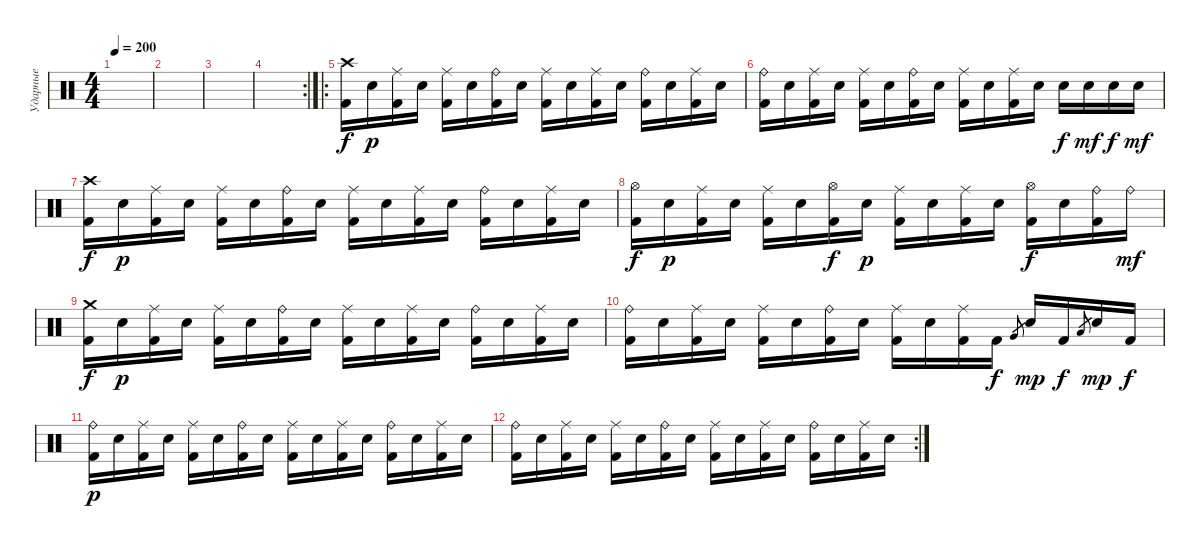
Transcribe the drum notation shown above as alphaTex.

\track ("Ударные" "Ударные") {instrument percussion}
\staff {score}
\articulation defaults
\ts (4 4)
\tempo 200
\clef neutral
\ks c
|
|
|
\rc 2
|
\ro
("Crash high (hit)" "Kick (hit) 2").16{dy f} "Electric Snare (hit)".16{dy p} ("Ride (middle)" "Kick (hit) 2").16 "Electric Snare (hit)".16 ("Ride (middle)" "Kick (hit) 2").16 "Electric Snare (hit)".16 ("Ride (bell)" "Kick (hit) 2").16 "Electric Snare (hit)".16 ("Ride (middle)" "Kick (hit) 2").16 "Electric Snare (hit)".16 ("Ride (middle)" "Kick (hit) 2").16 "Electric Snare (hit)".16 ("Ride (bell)" "Kick (hit) 2").16 "Electric Snare (hit)".16 ("Ride (middle)" "Kick (hit) 2").16 "Electric Snare (hit)".16 |
("Ride (bell)" "Kick (hit) 2").16 "Electric Snare (hit)".16 ("Ride (middle)" "Kick (hit) 2").16 "Electric Snare (hit)".16 ("Ride (middle)" "Kick (hit) 2").16 "Electric Snare (hit)".16 ("Ride (bell)" "Kick (hit) 2").16 "Electric Snare (hit)".16 ("Ride (middle)" "Kick (hit) 2").16 "Electric Snare (hit)".16 ("Ride (middle)" "Kick (hit) 2").16 "Electric Snare (hit)".16 "Electric Snare (hit)".16{dy f} "Electric Snare (hit)".16{dy mf} "Electric Snare (hit)".16{dy f} "Electric Snare (hit)".16{dy mf} |
("Crash high (hit)" "Kick (hit) 2").16{dy f} "Electric Snare (hit)".16{dy p} ("Ride (middle)" "Kick (hit) 2").16 "Electric Snare (hit)".16 ("Ride (middle)" "Kick (hit) 2").16 "Electric Snare (hit)".16 ("Ride (bell)" "Kick (hit) 2").16 "Electric Snare (hit)".16 ("Ride (middle)" "Kick (hit) 2").16 "Electric Snare (hit)".16 ("Ride (middle)" "Kick (hit) 2").16 "Electric Snare (hit)".16 ("Ride (bell)" "Kick (hit) 2").16 "Electric Snare (hit)".16 ("Ride (middle)" "Kick (hit) 2").16 "Electric Snare (hit)".16 |
("Hi-Hat (open)" "Kick (hit) 2").16{dy f} "Electric Snare (hit)".16{dy p} ("Ride (middle)" "Kick (hit) 2").16 "Electric Snare (hit)".16 ("Ride (middle)" "Kick (hit) 2").16 "Electric Snare (hit)".16 ("Hi-Hat (open)" "Kick (hit) 2").16{dy f} "Electric Snare (hit)".16{dy p} ("Ride (middle)" "Kick (hit) 2").16 "Electric Snare (hit)".16 ("Ride (middle)" "Kick (hit) 2").16 "Electric Snare (hit)".16 ("Hi-Hat (open)" "Kick (hit) 2").16{dy f} "Electric Snare (hit)".16 ("Ride (bell)" "Kick (hit) 2").16 "Ride (bell)".16{dy mf} |
("Crash medium (hit)" "Kick (hit) 2").16{dy f} "Electric Snare (hit)".16{dy p} ("Ride (middle)" "Kick (hit) 2").16 "Electric Snare (hit)".16 ("Ride (middle)" "Kick (hit) 2").16 "Electric Snare (hit)".16 ("Ride (bell)" "Kick (hit) 2").16 "Electric Snare (hit)".16 ("Ride (middle)" "Kick (hit) 2").16 "Electric Snare (hit)".16 ("Ride (middle)" "Kick (hit) 2").16 "Electric Snare (hit)".16 ("Ride (bell)" "Kick (hit) 2").16 "Electric Snare (hit)".16 ("Ride (middle)" "Kick (hit) 2").16 "Electric Snare (hit)".16 |
("Ride (bell)" "Kick (hit) 2").16 "Electric Snare (hit)".16 ("Ride (middle)" "Kick (hit) 2").16 "Electric Snare (hit)".16 ("Ride (middle)" "Kick (hit) 2").16 "Electric Snare (hit)".16 ("Ride (bell)" "Kick (hit) 2").16 "Electric Snare (hit)".16 ("Ride (middle)" "Kick (hit) 2").16 "Electric Snare (hit)".16 ("Ride (middle)" "Kick (hit) 2").16 "Kick (hit) 2".16{dy f} "Very Low Tom (hit)".8{gr} "Electric Snare (hit)".16{dy mp} "Kick (hit) 2".16{dy f} "Low Floor Tom (hit)".8{gr} "Electric Snare (hit)".16{dy mp} "Kick (hit) 2".16{dy f} |
("Ride (bell)" "Kick (hit) 2").16{dy p} "Electric Snare (hit)".16 ("Ride (middle)" "Kick (hit) 2").16 "Electric Snare (hit)".16 ("Ride (middle)" "Kick (hit) 2").16 "Electric Snare (hit)".16 ("Ride (bell)" "Kick (hit) 2").16 "Electric Snare (hit)".16 ("Ride (middle)" "Kick (hit) 2").16 "Electric Snare (hit)".16 ("Ride (middle)" "Kick (hit) 2").16 "Electric Snare (hit)".16 ("Ride (bell)" "Kick (hit) 2").16 "Electric Snare (hit)".16 ("Ride (middle)" "Kick (hit) 2").16 "Electric Snare (hit)".16 |
\rc 2
("Ride (bell)" "Kick (hit) 2").16 "Electric Snare (hit)".16 ("Ride (middle)" "Kick (hit) 2").16 "Electric Snare (hit)".16 ("Ride (middle)" "Kick (hit) 2").16 "Electric Snare (hit)".16 ("Ride (bell)" "Kick (hit) 2").16 "Electric Snare (hit)".16 ("Ride (middle)" "Kick (hit) 2").16 "Electric Snare (hit)".16 ("Ride (middle)" "Kick (hit) 2").16 "Electric Snare (hit)".16 ("Ride (bell)" "Kick (hit) 2").16 "Electric Snare (hit)".16 ("Ride (middle)" "Kick (hit) 2").16 "Electric Snare (hit)".16
